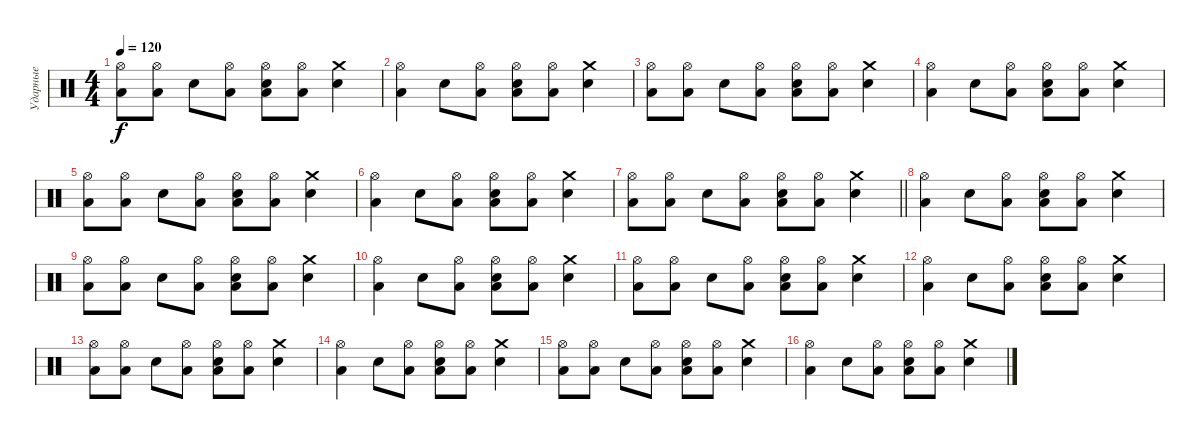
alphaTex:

\track ("Ударные" "Ударные") {instrument percussion}
\staff {score}
\articulation defaults
\ts (4 4)
\tempo 120
\clef neutral
\ks c
("Low Floor Tom (hit)" "Hi-Hat (open)").8{dy f} ("Low Floor Tom (hit)" "Hi-Hat (open)").8 "Snare (hit) 2".8 ("Low Floor Tom (hit)" "Hi-Hat (open)").8 ("Low Floor Tom (hit)" "Snare (hit) 2" "Hi-Hat (open)").8 ("Low Floor Tom (hit)" "Hi-Hat (open)").8 ("Snare (hit) 2" "Crash medium (hit)").4 |
("Low Floor Tom (hit)" "Hi-Hat (open)").4 "Snare (hit) 2".8 ("Low Floor Tom (hit)" "Hi-Hat (open)").8 ("Low Floor Tom (hit)" "Snare (hit) 2" "Hi-Hat (open)").8 ("Low Floor Tom (hit)" "Hi-Hat (open)").8 ("Snare (hit) 2" "Crash medium (hit)").4 |
("Low Floor Tom (hit)" "Hi-Hat (open)").8 ("Low Floor Tom (hit)" "Hi-Hat (open)").8 "Snare (hit) 2".8 ("Low Floor Tom (hit)" "Hi-Hat (open)").8 ("Low Floor Tom (hit)" "Snare (hit) 2" "Hi-Hat (open)").8 ("Low Floor Tom (hit)" "Hi-Hat (open)").8 ("Snare (hit) 2" "Crash medium (hit)").4 |
("Low Floor Tom (hit)" "Hi-Hat (open)").4 "Snare (hit) 2".8 ("Low Floor Tom (hit)" "Hi-Hat (open)").8 ("Low Floor Tom (hit)" "Snare (hit) 2" "Hi-Hat (open)").8 ("Low Floor Tom (hit)" "Hi-Hat (open)").8 ("Snare (hit) 2" "Crash medium (hit)").4 |
("Low Floor Tom (hit)" "Hi-Hat (open)").8 ("Low Floor Tom (hit)" "Hi-Hat (open)").8 "Snare (hit) 2".8 ("Low Floor Tom (hit)" "Hi-Hat (open)").8 ("Low Floor Tom (hit)" "Snare (hit) 2" "Hi-Hat (open)").8 ("Low Floor Tom (hit)" "Hi-Hat (open)").8 ("Snare (hit) 2" "Crash medium (hit)").4 |
("Low Floor Tom (hit)" "Hi-Hat (open)").4 "Snare (hit) 2".8 ("Low Floor Tom (hit)" "Hi-Hat (open)").8 ("Low Floor Tom (hit)" "Snare (hit) 2" "Hi-Hat (open)").8 ("Low Floor Tom (hit)" "Hi-Hat (open)").8 ("Snare (hit) 2" "Crash medium (hit)").4 |
\barLineRight lightlight
("Low Floor Tom (hit)" "Hi-Hat (open)").8 ("Low Floor Tom (hit)" "Hi-Hat (open)").8 "Snare (hit) 2".8 ("Low Floor Tom (hit)" "Hi-Hat (open)").8 ("Low Floor Tom (hit)" "Snare (hit) 2" "Hi-Hat (open)").8 ("Low Floor Tom (hit)" "Hi-Hat (open)").8 ("Snare (hit) 2" "Crash medium (hit)").4 |
\section ("" "")
("Low Floor Tom (hit)" "Hi-Hat (open)").4 "Snare (hit) 2".8 ("Low Floor Tom (hit)" "Hi-Hat (open)").8 ("Low Floor Tom (hit)" "Snare (hit) 2" "Hi-Hat (open)").8 ("Low Floor Tom (hit)" "Hi-Hat (open)").8 ("Snare (hit) 2" "Crash medium (hit)").4 |
("Low Floor Tom (hit)" "Hi-Hat (open)").8 ("Low Floor Tom (hit)" "Hi-Hat (open)").8 "Snare (hit) 2".8 ("Low Floor Tom (hit)" "Hi-Hat (open)").8 ("Low Floor Tom (hit)" "Snare (hit) 2" "Hi-Hat (open)").8 ("Low Floor Tom (hit)" "Hi-Hat (open)").8 ("Snare (hit) 2" "Crash medium (hit)").4 |
("Low Floor Tom (hit)" "Hi-Hat (open)").4 "Snare (hit) 2".8 ("Low Floor Tom (hit)" "Hi-Hat (open)").8 ("Low Floor Tom (hit)" "Snare (hit) 2" "Hi-Hat (open)").8 ("Low Floor Tom (hit)" "Hi-Hat (open)").8 ("Snare (hit) 2" "Crash medium (hit)").4 |
("Low Floor Tom (hit)" "Hi-Hat (open)").8 ("Low Floor Tom (hit)" "Hi-Hat (open)").8 "Snare (hit) 2".8 ("Low Floor Tom (hit)" "Hi-Hat (open)").8 ("Low Floor Tom (hit)" "Snare (hit) 2" "Hi-Hat (open)").8 ("Low Floor Tom (hit)" "Hi-Hat (open)").8 ("Snare (hit) 2" "Crash medium (hit)").4 |
("Low Floor Tom (hit)" "Hi-Hat (open)").4 "Snare (hit) 2".8 ("Low Floor Tom (hit)" "Hi-Hat (open)").8 ("Low Floor Tom (hit)" "Snare (hit) 2" "Hi-Hat (open)").8 ("Low Floor Tom (hit)" "Hi-Hat (open)").8 ("Snare (hit) 2" "Crash medium (hit)").4 |
("Low Floor Tom (hit)" "Hi-Hat (open)").8 ("Low Floor Tom (hit)" "Hi-Hat (open)").8 "Snare (hit) 2".8 ("Low Floor Tom (hit)" "Hi-Hat (open)").8 ("Low Floor Tom (hit)" "Snare (hit) 2" "Hi-Hat (open)").8 ("Low Floor Tom (hit)" "Hi-Hat (open)").8 ("Snare (hit) 2" "Crash medium (hit)").4 |
("Low Floor Tom (hit)" "Hi-Hat (open)").4 "Snare (hit) 2".8 ("Low Floor Tom (hit)" "Hi-Hat (open)").8 ("Low Floor Tom (hit)" "Snare (hit) 2" "Hi-Hat (open)").8 ("Low Floor Tom (hit)" "Hi-Hat (open)").8 ("Snare (hit) 2" "Crash medium (hit)").4 |
("Low Floor Tom (hit)" "Hi-Hat (open)").8 ("Low Floor Tom (hit)" "Hi-Hat (open)").8 "Snare (hit) 2".8 ("Low Floor Tom (hit)" "Hi-Hat (open)").8 ("Low Floor Tom (hit)" "Snare (hit) 2" "Hi-Hat (open)").8 ("Low Floor Tom (hit)" "Hi-Hat (open)").8 ("Snare (hit) 2" "Crash medium (hit)").4 |
("Low Floor Tom (hit)" "Hi-Hat (open)").4 "Snare (hit) 2".8 ("Low Floor Tom (hit)" "Hi-Hat (open)").8 ("Low Floor Tom (hit)" "Snare (hit) 2" "Hi-Hat (open)").8 ("Low Floor Tom (hit)" "Hi-Hat (open)").8 ("Snare (hit) 2" "Crash medium (hit)").4
